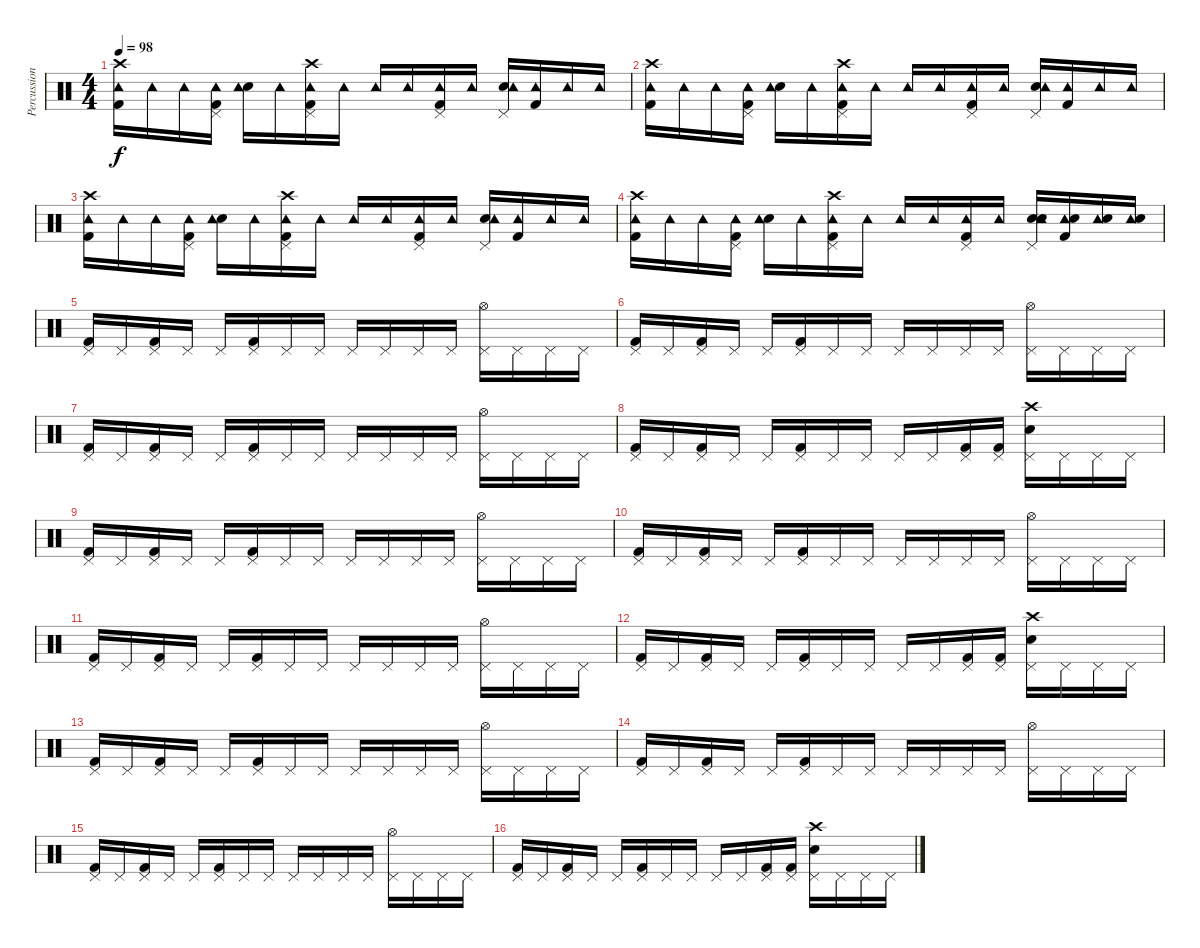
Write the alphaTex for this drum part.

\track ("Percussion" "Percussion") {instrument percussion}
\staff {score}
\articulation defaults
\ts (4 4)
\tempo 98
\clef neutral
\ks c
("Crash high (hit)" "Kick (hit) 2" "Tambourine (hit)").16{dy f} "Tambourine (hit)".16 "Tambourine (hit)".16 ("Pedal Hi-Hat (hit)" "Kick (hit) 2" "Tambourine (hit)").16 ("Snare (hit) 2" "Tambourine (hit)").16 "Tambourine (hit)".16 ("Crash high (hit)" "Kick (hit) 2" "Tambourine (hit)" "Pedal Hi-Hat (hit)").16 "Tambourine (hit)".16 "Tambourine (hit)".16 "Tambourine (hit)".16 ("Pedal Hi-Hat (hit)" "Kick (hit) 2" "Tambourine (hit)").16 "Tambourine (hit)".16 ("Pedal Hi-Hat (hit)" "Snare (hit) 2" "Tambourine (hit)").16 ("Kick (hit) 2" "Tambourine (hit)").16 "Tambourine (hit)".16 "Tambourine (hit)".16 |
("Crash high (hit)" "Kick (hit) 2" "Tambourine (hit)").16 "Tambourine (hit)".16 "Tambourine (hit)".16 ("Pedal Hi-Hat (hit)" "Kick (hit) 2" "Tambourine (hit)").16 ("Snare (hit) 2" "Tambourine (hit)").16 "Tambourine (hit)".16 ("Crash high (hit)" "Kick (hit) 2" "Tambourine (hit)" "Pedal Hi-Hat (hit)").16 "Tambourine (hit)".16 "Tambourine (hit)".16 "Tambourine (hit)".16 ("Pedal Hi-Hat (hit)" "Kick (hit) 2" "Tambourine (hit)").16 "Tambourine (hit)".16 ("Pedal Hi-Hat (hit)" "Snare (hit) 2" "Tambourine (hit)").16 ("Kick (hit) 2" "Tambourine (hit)").16 "Tambourine (hit)".16 "Tambourine (hit)".16 |
("Crash high (hit)" "Kick (hit) 2" "Tambourine (hit)").16 "Tambourine (hit)".16 "Tambourine (hit)".16 ("Pedal Hi-Hat (hit)" "Kick (hit) 2" "Tambourine (hit)").16 ("Snare (hit) 2" "Tambourine (hit)").16 "Tambourine (hit)".16 ("Crash high (hit)" "Kick (hit) 2" "Tambourine (hit)" "Pedal Hi-Hat (hit)").16 "Tambourine (hit)".16 "Tambourine (hit)".16 "Tambourine (hit)".16 ("Pedal Hi-Hat (hit)" "Kick (hit) 2" "Tambourine (hit)").16 "Tambourine (hit)".16 ("Pedal Hi-Hat (hit)" "Snare (hit) 2" "Tambourine (hit)").16 ("Kick (hit) 2" "Tambourine (hit)").16 "Tambourine (hit)".16 "Tambourine (hit)".16 |
("Crash high (hit)" "Kick (hit) 2" "Tambourine (hit)").16 "Tambourine (hit)".16 "Tambourine (hit)".16 ("Pedal Hi-Hat (hit)" "Kick (hit) 2" "Tambourine (hit)").16 ("Snare (hit) 2" "Tambourine (hit)").16 "Tambourine (hit)".16 ("Crash high (hit)" "Kick (hit) 2" "Tambourine (hit)" "Pedal Hi-Hat (hit)").16 "Tambourine (hit)".16 "Tambourine (hit)".16 "Tambourine (hit)".16 ("Pedal Hi-Hat (hit)" "Kick (hit) 2" "Tambourine (hit)").16 "Tambourine (hit)".16 ("Pedal Hi-Hat (hit)" "Snare (hit) 2" "Tambourine (hit)" "Snare (hit) 2").16 ("Kick (hit) 2" "Tambourine (hit)" "Snare (hit) 2").16 ("Tambourine (hit)" "Snare (hit) 2").16 ("Tambourine (hit)" "Snare (hit) 2").16 |
("Pedal Hi-Hat (hit)" "Kick (hit) 2").16 "Pedal Hi-Hat (hit)".16 ("Pedal Hi-Hat (hit)" "Kick (hit) 2").16 "Pedal Hi-Hat (hit)".16 "Pedal Hi-Hat (hit)".16 ("Pedal Hi-Hat (hit)" "Kick (hit) 2").16 "Pedal Hi-Hat (hit)".16 "Pedal Hi-Hat (hit)".16 "Pedal Hi-Hat (hit)".16 "Pedal Hi-Hat (hit)".16 "Pedal Hi-Hat (hit)".16 "Pedal Hi-Hat (hit)".16 ("Pedal Hi-Hat (hit)" "Hi-Hat (open)").16 "Pedal Hi-Hat (hit)".16 "Pedal Hi-Hat (hit)".16 "Pedal Hi-Hat (hit)".16 |
("Pedal Hi-Hat (hit)" "Kick (hit) 2").16 "Pedal Hi-Hat (hit)".16 ("Pedal Hi-Hat (hit)" "Kick (hit) 2").16 "Pedal Hi-Hat (hit)".16 "Pedal Hi-Hat (hit)".16 ("Pedal Hi-Hat (hit)" "Kick (hit) 2").16 "Pedal Hi-Hat (hit)".16 "Pedal Hi-Hat (hit)".16 "Pedal Hi-Hat (hit)".16 "Pedal Hi-Hat (hit)".16 "Pedal Hi-Hat (hit)".16 "Pedal Hi-Hat (hit)".16 ("Pedal Hi-Hat (hit)" "Hi-Hat (open)").16 "Pedal Hi-Hat (hit)".16 "Pedal Hi-Hat (hit)".16 "Pedal Hi-Hat (hit)".16 |
("Pedal Hi-Hat (hit)" "Kick (hit) 2").16 "Pedal Hi-Hat (hit)".16 ("Pedal Hi-Hat (hit)" "Kick (hit) 2").16 "Pedal Hi-Hat (hit)".16 "Pedal Hi-Hat (hit)".16 ("Pedal Hi-Hat (hit)" "Kick (hit) 2").16 "Pedal Hi-Hat (hit)".16 "Pedal Hi-Hat (hit)".16 "Pedal Hi-Hat (hit)".16 "Pedal Hi-Hat (hit)".16 "Pedal Hi-Hat (hit)".16 "Pedal Hi-Hat (hit)".16 ("Pedal Hi-Hat (hit)" "Hi-Hat (open)").16 "Pedal Hi-Hat (hit)".16 "Pedal Hi-Hat (hit)".16 "Pedal Hi-Hat (hit)".16 |
("Pedal Hi-Hat (hit)" "Kick (hit) 2").16 "Pedal Hi-Hat (hit)".16 ("Pedal Hi-Hat (hit)" "Kick (hit) 2").16 "Pedal Hi-Hat (hit)".16 "Pedal Hi-Hat (hit)".16 ("Pedal Hi-Hat (hit)" "Kick (hit) 2").16 "Pedal Hi-Hat (hit)".16 "Pedal Hi-Hat (hit)".16 "Pedal Hi-Hat (hit)".16 "Pedal Hi-Hat (hit)".16 ("Pedal Hi-Hat (hit)" "Kick (hit) 2").16 ("Pedal Hi-Hat (hit)" "Kick (hit) 2").16 ("Crash high (hit)" "Pedal Hi-Hat (hit)" "Snare (hit) 2").16 "Pedal Hi-Hat (hit)".16 "Pedal Hi-Hat (hit)".16 "Pedal Hi-Hat (hit)".16 |
("Pedal Hi-Hat (hit)" "Kick (hit) 2").16 "Pedal Hi-Hat (hit)".16 ("Pedal Hi-Hat (hit)" "Kick (hit) 2").16 "Pedal Hi-Hat (hit)".16 "Pedal Hi-Hat (hit)".16 ("Pedal Hi-Hat (hit)" "Kick (hit) 2").16 "Pedal Hi-Hat (hit)".16 "Pedal Hi-Hat (hit)".16 "Pedal Hi-Hat (hit)".16 "Pedal Hi-Hat (hit)".16 "Pedal Hi-Hat (hit)".16 "Pedal Hi-Hat (hit)".16 ("Pedal Hi-Hat (hit)" "Hi-Hat (open)").16 "Pedal Hi-Hat (hit)".16 "Pedal Hi-Hat (hit)".16 "Pedal Hi-Hat (hit)".16 |
("Pedal Hi-Hat (hit)" "Kick (hit) 2").16 "Pedal Hi-Hat (hit)".16 ("Pedal Hi-Hat (hit)" "Kick (hit) 2").16 "Pedal Hi-Hat (hit)".16 "Pedal Hi-Hat (hit)".16 ("Pedal Hi-Hat (hit)" "Kick (hit) 2").16 "Pedal Hi-Hat (hit)".16 "Pedal Hi-Hat (hit)".16 "Pedal Hi-Hat (hit)".16 "Pedal Hi-Hat (hit)".16 "Pedal Hi-Hat (hit)".16 "Pedal Hi-Hat (hit)".16 ("Pedal Hi-Hat (hit)" "Hi-Hat (open)").16 "Pedal Hi-Hat (hit)".16 "Pedal Hi-Hat (hit)".16 "Pedal Hi-Hat (hit)".16 |
("Pedal Hi-Hat (hit)" "Kick (hit) 2").16 "Pedal Hi-Hat (hit)".16 ("Pedal Hi-Hat (hit)" "Kick (hit) 2").16 "Pedal Hi-Hat (hit)".16 "Pedal Hi-Hat (hit)".16 ("Pedal Hi-Hat (hit)" "Kick (hit) 2").16 "Pedal Hi-Hat (hit)".16 "Pedal Hi-Hat (hit)".16 "Pedal Hi-Hat (hit)".16 "Pedal Hi-Hat (hit)".16 "Pedal Hi-Hat (hit)".16 "Pedal Hi-Hat (hit)".16 ("Pedal Hi-Hat (hit)" "Hi-Hat (open)").16 "Pedal Hi-Hat (hit)".16 "Pedal Hi-Hat (hit)".16 "Pedal Hi-Hat (hit)".16 |
("Pedal Hi-Hat (hit)" "Kick (hit) 2").16 "Pedal Hi-Hat (hit)".16 ("Pedal Hi-Hat (hit)" "Kick (hit) 2").16 "Pedal Hi-Hat (hit)".16 "Pedal Hi-Hat (hit)".16 ("Pedal Hi-Hat (hit)" "Kick (hit) 2").16 "Pedal Hi-Hat (hit)".16 "Pedal Hi-Hat (hit)".16 "Pedal Hi-Hat (hit)".16 "Pedal Hi-Hat (hit)".16 ("Pedal Hi-Hat (hit)" "Kick (hit) 2").16 ("Pedal Hi-Hat (hit)" "Kick (hit) 2").16 ("Crash high (hit)" "Pedal Hi-Hat (hit)" "Snare (hit) 2").16 "Pedal Hi-Hat (hit)".16 "Pedal Hi-Hat (hit)".16 "Pedal Hi-Hat (hit)".16 |
("Pedal Hi-Hat (hit)" "Kick (hit) 2").16 "Pedal Hi-Hat (hit)".16 ("Pedal Hi-Hat (hit)" "Kick (hit) 2").16 "Pedal Hi-Hat (hit)".16 "Pedal Hi-Hat (hit)".16 ("Pedal Hi-Hat (hit)" "Kick (hit) 2").16 "Pedal Hi-Hat (hit)".16 "Pedal Hi-Hat (hit)".16 "Pedal Hi-Hat (hit)".16 "Pedal Hi-Hat (hit)".16 "Pedal Hi-Hat (hit)".16 "Pedal Hi-Hat (hit)".16 ("Pedal Hi-Hat (hit)" "Hi-Hat (open)").16 "Pedal Hi-Hat (hit)".16 "Pedal Hi-Hat (hit)".16 "Pedal Hi-Hat (hit)".16 |
("Pedal Hi-Hat (hit)" "Kick (hit) 2").16 "Pedal Hi-Hat (hit)".16 ("Pedal Hi-Hat (hit)" "Kick (hit) 2").16 "Pedal Hi-Hat (hit)".16 "Pedal Hi-Hat (hit)".16 ("Pedal Hi-Hat (hit)" "Kick (hit) 2").16 "Pedal Hi-Hat (hit)".16 "Pedal Hi-Hat (hit)".16 "Pedal Hi-Hat (hit)".16 "Pedal Hi-Hat (hit)".16 "Pedal Hi-Hat (hit)".16 "Pedal Hi-Hat (hit)".16 ("Pedal Hi-Hat (hit)" "Hi-Hat (open)").16 "Pedal Hi-Hat (hit)".16 "Pedal Hi-Hat (hit)".16 "Pedal Hi-Hat (hit)".16 |
("Pedal Hi-Hat (hit)" "Kick (hit) 2").16 "Pedal Hi-Hat (hit)".16 ("Pedal Hi-Hat (hit)" "Kick (hit) 2").16 "Pedal Hi-Hat (hit)".16 "Pedal Hi-Hat (hit)".16 ("Pedal Hi-Hat (hit)" "Kick (hit) 2").16 "Pedal Hi-Hat (hit)".16 "Pedal Hi-Hat (hit)".16 "Pedal Hi-Hat (hit)".16 "Pedal Hi-Hat (hit)".16 "Pedal Hi-Hat (hit)".16 "Pedal Hi-Hat (hit)".16 ("Pedal Hi-Hat (hit)" "Hi-Hat (open)").16 "Pedal Hi-Hat (hit)".16 "Pedal Hi-Hat (hit)".16 "Pedal Hi-Hat (hit)".16 |
("Pedal Hi-Hat (hit)" "Kick (hit) 2").16 "Pedal Hi-Hat (hit)".16 ("Pedal Hi-Hat (hit)" "Kick (hit) 2").16 "Pedal Hi-Hat (hit)".16 "Pedal Hi-Hat (hit)".16 ("Pedal Hi-Hat (hit)" "Kick (hit) 2").16 "Pedal Hi-Hat (hit)".16 "Pedal Hi-Hat (hit)".16 "Pedal Hi-Hat (hit)".16 "Pedal Hi-Hat (hit)".16 ("Pedal Hi-Hat (hit)" "Kick (hit) 2").16 ("Pedal Hi-Hat (hit)" "Kick (hit) 2").16 ("Crash high (hit)" "Pedal Hi-Hat (hit)" "Snare (hit) 2").16 "Pedal Hi-Hat (hit)".16 "Pedal Hi-Hat (hit)".16 "Pedal Hi-Hat (hit)".16
